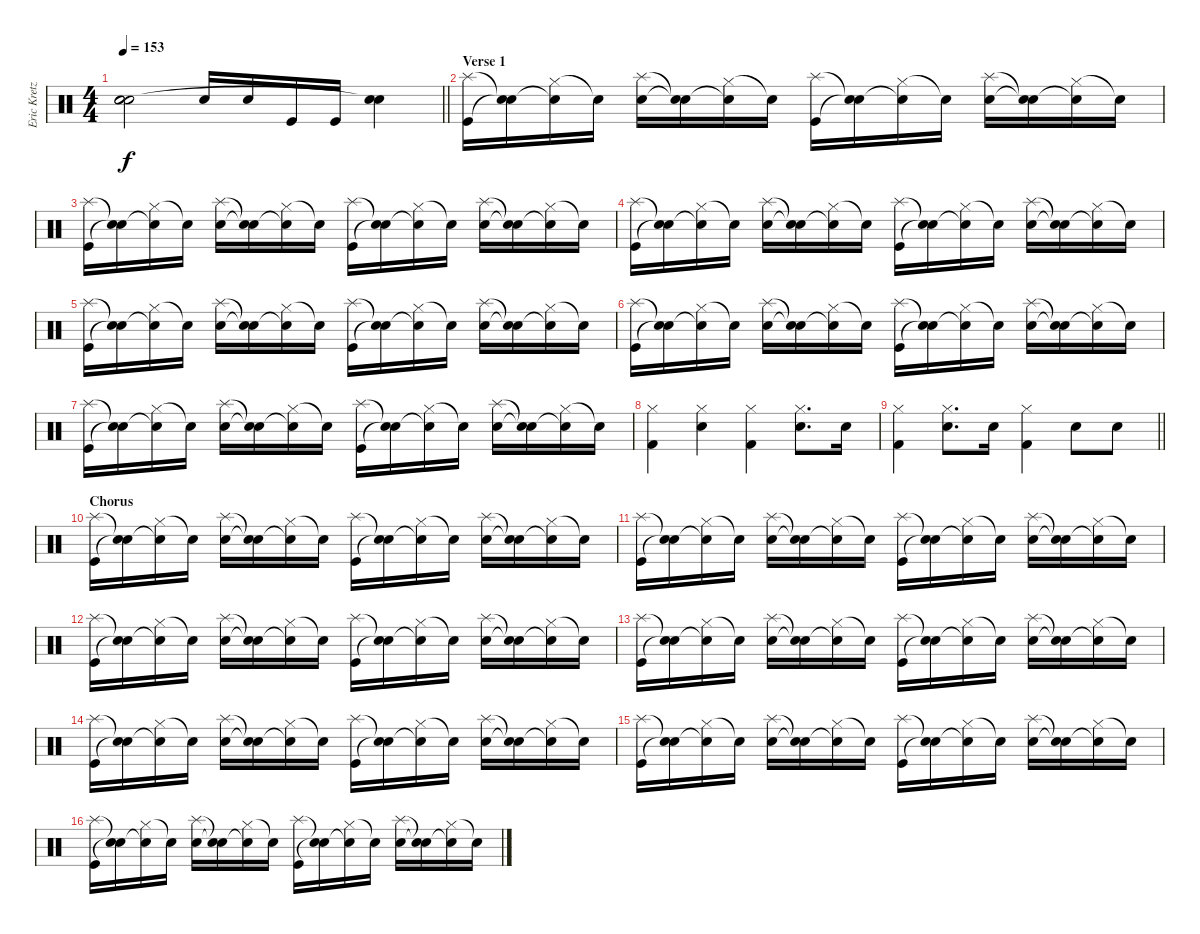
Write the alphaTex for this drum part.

\track ("Eric Kretz - Drums" "Eric Kretz") {instrument percussion}
\staff {score}
\articulation defaults
\ts (4 4)
\tempo 153
\clef neutral
\barLineRight lightlight
\ks c
("Snare (hit)"{t} "Snare (hit)"{t} "Snare (hit)"{t}).2{dy f} "Snare (hit) 2".16 "Snare (hit) 2".16 "Kick (hit)".16 "Kick (hit)".16 ("Snare (hit) 2" "Snare (hit)"{t}).4 |
\section ("" "Verse 1")
("Kick (hit)" "Splash (hit)").16 ("Snare (hit)"{t} "Snare (hit)"{t}).16 ("Hi-Hat (closed)" "Snare (hit)"{t}).16 "Snare (hit)"{t}.16 ("Snare (hit) 2" "Splash (hit)").16 ("Snare (hit)"{t} "Snare (hit)"{t}).16 ("Hi-Hat (closed)" "Snare (hit)"{t}).16 "Snare (hit)"{t}.16 ("Kick (hit)" "Splash (hit)").16 ("Snare (hit)"{t} "Snare (hit)"{t}).16 ("Hi-Hat (closed)" "Snare (hit)"{t}).16 "Snare (hit)"{t}.16 ("Snare (hit) 2" "Splash (hit)").16 ("Snare (hit)"{t} "Snare (hit)"{t}).16 ("Hi-Hat (closed)" "Snare (hit)"{t}).16 "Snare (hit)"{t}.16 |
("Kick (hit)" "Splash (hit)").16 ("Snare (hit)"{t} "Snare (hit)"{t}).16 ("Hi-Hat (closed)" "Snare (hit)"{t}).16 "Snare (hit)"{t}.16 ("Snare (hit) 2" "Splash (hit)").16 ("Snare (hit)"{t} "Snare (hit)"{t}).16 ("Hi-Hat (closed)" "Snare (hit)"{t}).16 "Snare (hit)"{t}.16 ("Kick (hit)" "Splash (hit)").16 ("Snare (hit)"{t} "Snare (hit)"{t}).16 ("Hi-Hat (closed)" "Snare (hit)"{t}).16 "Snare (hit)"{t}.16 ("Snare (hit) 2" "Splash (hit)").16 ("Snare (hit)"{t} "Snare (hit)"{t}).16 ("Hi-Hat (closed)" "Snare (hit)"{t}).16 "Snare (hit)"{t}.16 |
("Kick (hit)" "Splash (hit)").16 ("Snare (hit)"{t} "Snare (hit)"{t}).16 ("Hi-Hat (closed)" "Snare (hit)"{t}).16 "Snare (hit)"{t}.16 ("Snare (hit) 2" "Splash (hit)").16 ("Snare (hit)"{t} "Snare (hit)"{t}).16 ("Hi-Hat (closed)" "Snare (hit)"{t}).16 "Snare (hit)"{t}.16 ("Kick (hit)" "Splash (hit)").16 ("Snare (hit)"{t} "Snare (hit)"{t}).16 ("Hi-Hat (closed)" "Snare (hit)"{t}).16 "Snare (hit)"{t}.16 ("Snare (hit) 2" "Splash (hit)").16 ("Snare (hit)"{t} "Snare (hit)"{t}).16 ("Hi-Hat (closed)" "Snare (hit)"{t}).16 "Snare (hit)"{t}.16 |
("Kick (hit)" "Splash (hit)").16 ("Snare (hit)"{t} "Snare (hit)"{t}).16 ("Hi-Hat (closed)" "Snare (hit)"{t}).16 "Snare (hit)"{t}.16 ("Snare (hit) 2" "Splash (hit)").16 ("Snare (hit)"{t} "Snare (hit)"{t}).16 ("Hi-Hat (closed)" "Snare (hit)"{t}).16 "Snare (hit)"{t}.16 ("Kick (hit)" "Splash (hit)").16 ("Snare (hit)"{t} "Snare (hit)"{t}).16 ("Hi-Hat (closed)" "Snare (hit)"{t}).16 "Snare (hit)"{t}.16 ("Snare (hit) 2" "Splash (hit)").16 ("Snare (hit)"{t} "Snare (hit)"{t}).16 ("Hi-Hat (closed)" "Snare (hit)"{t}).16 "Snare (hit)"{t}.16 |
("Kick (hit)" "Splash (hit)").16 ("Snare (hit)"{t} "Snare (hit)"{t}).16 ("Hi-Hat (closed)" "Snare (hit)"{t}).16 "Snare (hit)"{t}.16 ("Snare (hit) 2" "Splash (hit)").16 ("Snare (hit)"{t} "Snare (hit)"{t}).16 ("Hi-Hat (closed)" "Snare (hit)"{t}).16 "Snare (hit)"{t}.16 ("Kick (hit)" "Splash (hit)").16 ("Snare (hit)"{t} "Snare (hit)"{t}).16 ("Hi-Hat (closed)" "Snare (hit)"{t}).16 "Snare (hit)"{t}.16 ("Snare (hit) 2" "Splash (hit)").16 ("Snare (hit)"{t} "Snare (hit)"{t}).16 ("Hi-Hat (closed)" "Snare (hit)"{t}).16 "Snare (hit)"{t}.16 |
("Kick (hit)" "Splash (hit)").16 ("Snare (hit)"{t} "Snare (hit)"{t}).16 ("Hi-Hat (closed)" "Snare (hit)"{t}).16 "Snare (hit)"{t}.16 ("Snare (hit) 2" "Splash (hit)").16 ("Snare (hit)"{t} "Snare (hit)"{t}).16 ("Hi-Hat (closed)" "Snare (hit)"{t}).16 "Snare (hit)"{t}.16 ("Kick (hit)" "Splash (hit)").16 ("Snare (hit)"{t} "Snare (hit)"{t}).16 ("Hi-Hat (closed)" "Snare (hit)"{t}).16 "Snare (hit)"{t}.16 ("Snare (hit) 2" "Splash (hit)").16 ("Snare (hit)"{t} "Snare (hit)"{t}).16 ("Hi-Hat (closed)" "Snare (hit)"{t}).16 "Snare (hit)"{t}.16 |
("Kick (hit) 2" "Hi-Hat (closed)").4 ("Snare (hit) 2" "Hi-Hat (closed)").4 ("Kick (hit) 2" "Hi-Hat (closed)").4 ("Snare (hit) 2" "Hi-Hat (closed)").8{d} "Snare (hit) 2".16 |
\barLineRight lightlight
("Kick (hit) 2" "Hi-Hat (closed)").4 ("Snare (hit) 2" "Hi-Hat (closed)").8{d} "Snare (hit) 2".16 ("Kick (hit) 2" "Hi-Hat (closed)").4 "Snare (hit) 2".8 "Snare (hit) 2".8 |
\section ("" "Chorus")
("Kick (hit)" "Splash (hit)").16 ("Snare (hit)"{t} "Snare (hit)"{t}).16 ("Hi-Hat (closed)" "Snare (hit)"{t}).16 "Snare (hit)"{t}.16 ("Snare (hit) 2" "Splash (hit)").16 ("Snare (hit)"{t} "Snare (hit)"{t}).16 ("Hi-Hat (closed)" "Snare (hit)"{t}).16 "Snare (hit)"{t}.16 ("Kick (hit)" "Splash (hit)").16 ("Snare (hit)"{t} "Snare (hit)"{t}).16 ("Hi-Hat (closed)" "Snare (hit)"{t}).16 "Snare (hit)"{t}.16 ("Snare (hit) 2" "Splash (hit)").16 ("Snare (hit)"{t} "Snare (hit)"{t}).16 ("Hi-Hat (closed)" "Snare (hit)"{t}).16 "Snare (hit)"{t}.16 |
("Kick (hit)" "Splash (hit)").16 ("Snare (hit)"{t} "Snare (hit)"{t}).16 ("Hi-Hat (closed)" "Snare (hit)"{t}).16 "Snare (hit)"{t}.16 ("Snare (hit) 2" "Splash (hit)").16 ("Snare (hit)"{t} "Snare (hit)"{t}).16 ("Hi-Hat (closed)" "Snare (hit)"{t}).16 "Snare (hit)"{t}.16 ("Kick (hit)" "Splash (hit)").16 ("Snare (hit)"{t} "Snare (hit)"{t}).16 ("Hi-Hat (closed)" "Snare (hit)"{t}).16 "Snare (hit)"{t}.16 ("Snare (hit) 2" "Splash (hit)").16 ("Snare (hit)"{t} "Snare (hit)"{t}).16 ("Hi-Hat (closed)" "Snare (hit)"{t}).16 "Snare (hit)"{t}.16 |
("Kick (hit)" "Splash (hit)").16 ("Snare (hit)"{t} "Snare (hit)"{t}).16 ("Hi-Hat (closed)" "Snare (hit)"{t}).16 "Snare (hit)"{t}.16 ("Snare (hit) 2" "Splash (hit)").16 ("Snare (hit)"{t} "Snare (hit)"{t}).16 ("Hi-Hat (closed)" "Snare (hit)"{t}).16 "Snare (hit)"{t}.16 ("Kick (hit)" "Splash (hit)").16 ("Snare (hit)"{t} "Snare (hit)"{t}).16 ("Hi-Hat (closed)" "Snare (hit)"{t}).16 "Snare (hit)"{t}.16 ("Snare (hit) 2" "Splash (hit)").16 ("Snare (hit)"{t} "Snare (hit)"{t}).16 ("Hi-Hat (closed)" "Snare (hit)"{t}).16 "Snare (hit)"{t}.16 |
("Kick (hit)" "Splash (hit)").16 ("Snare (hit)"{t} "Snare (hit)"{t}).16 ("Hi-Hat (closed)" "Snare (hit)"{t}).16 "Snare (hit)"{t}.16 ("Snare (hit) 2" "Splash (hit)").16 ("Snare (hit)"{t} "Snare (hit)"{t}).16 ("Hi-Hat (closed)" "Snare (hit)"{t}).16 "Snare (hit)"{t}.16 ("Kick (hit)" "Splash (hit)").16 ("Snare (hit)"{t} "Snare (hit)"{t}).16 ("Hi-Hat (closed)" "Snare (hit)"{t}).16 "Snare (hit)"{t}.16 ("Snare (hit) 2" "Splash (hit)").16 ("Snare (hit)"{t} "Snare (hit)"{t}).16 ("Hi-Hat (closed)" "Snare (hit)"{t}).16 "Snare (hit)"{t}.16 |
("Kick (hit)" "Splash (hit)").16 ("Snare (hit)"{t} "Snare (hit)"{t}).16 ("Hi-Hat (closed)" "Snare (hit)"{t}).16 "Snare (hit)"{t}.16 ("Snare (hit) 2" "Splash (hit)").16 ("Snare (hit)"{t} "Snare (hit)"{t}).16 ("Hi-Hat (closed)" "Snare (hit)"{t}).16 "Snare (hit)"{t}.16 ("Kick (hit)" "Splash (hit)").16 ("Snare (hit)"{t} "Snare (hit)"{t}).16 ("Hi-Hat (closed)" "Snare (hit)"{t}).16 "Snare (hit)"{t}.16 ("Snare (hit) 2" "Splash (hit)").16 ("Snare (hit)"{t} "Snare (hit)"{t}).16 ("Hi-Hat (closed)" "Snare (hit)"{t}).16 "Snare (hit)"{t}.16 |
("Kick (hit)" "Splash (hit)").16 ("Snare (hit)"{t} "Snare (hit)"{t}).16 ("Hi-Hat (closed)" "Snare (hit)"{t}).16 "Snare (hit)"{t}.16 ("Snare (hit) 2" "Splash (hit)").16 ("Snare (hit)"{t} "Snare (hit)"{t}).16 ("Hi-Hat (closed)" "Snare (hit)"{t}).16 "Snare (hit)"{t}.16 ("Kick (hit)" "Splash (hit)").16 ("Snare (hit)"{t} "Snare (hit)"{t}).16 ("Hi-Hat (closed)" "Snare (hit)"{t}).16 "Snare (hit)"{t}.16 ("Snare (hit) 2" "Splash (hit)").16 ("Snare (hit)"{t} "Snare (hit)"{t}).16 ("Hi-Hat (closed)" "Snare (hit)"{t}).16 "Snare (hit)"{t}.16 |
("Kick (hit)" "Splash (hit)").16 ("Snare (hit)"{t} "Snare (hit)"{t}).16 ("Hi-Hat (closed)" "Snare (hit)"{t}).16 "Snare (hit)"{t}.16 ("Snare (hit) 2" "Splash (hit)").16 ("Snare (hit)"{t} "Snare (hit)"{t}).16 ("Hi-Hat (closed)" "Snare (hit)"{t}).16 "Snare (hit)"{t}.16 ("Kick (hit)" "Splash (hit)").16 ("Snare (hit)"{t} "Snare (hit)"{t}).16 ("Hi-Hat (closed)" "Snare (hit)"{t}).16 "Snare (hit)"{t}.16 ("Snare (hit) 2" "Splash (hit)").16 ("Snare (hit)"{t} "Snare (hit)"{t}).16 ("Hi-Hat (closed)" "Snare (hit)"{t}).16 "Snare (hit)"{t}.16
